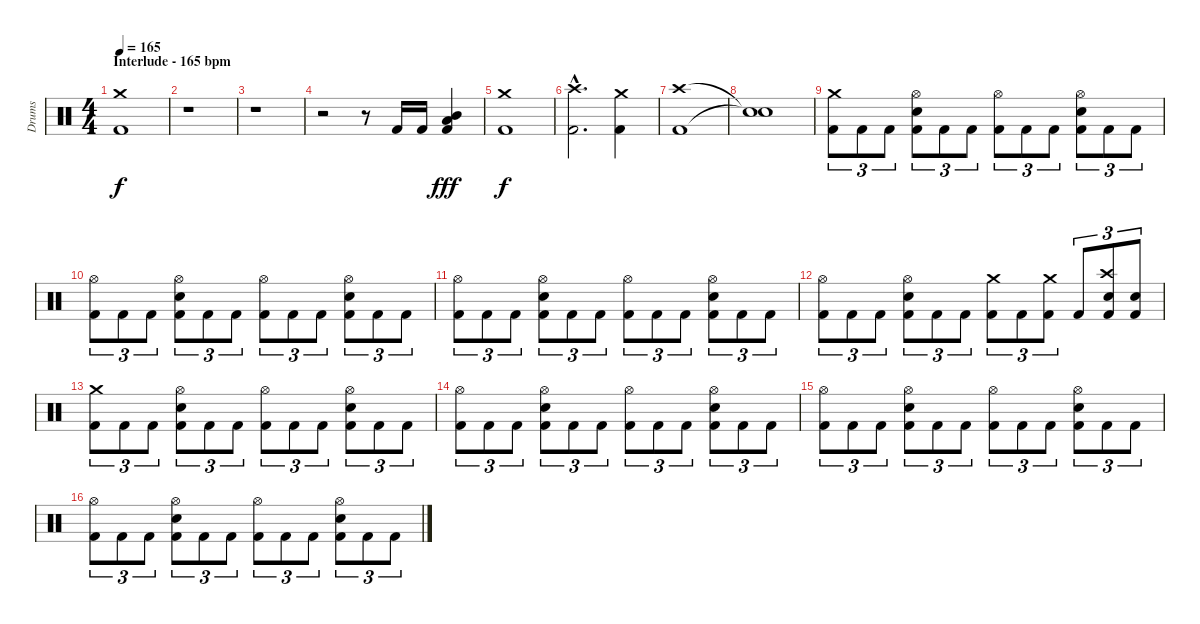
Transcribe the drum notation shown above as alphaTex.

\track ("Drums" "Drums") {instrument percussion}
\staff {score}
\articulation defaults
\ts (4 4)
\section ("" "Interlude - 165 bpm")
\tempo 165
\clef neutral
\ks c
("Kick (hit) 2" "Crash medium (hit)").1{dy f} |
r.1 |
r.1 |
r.2 r.8 "Kick (hit) 2".16 "Kick (hit) 2".16 ("Kick (hit) 2" "Mid Tom (hit)" "Low Tom (hit)").4{dy fff} |
("Kick (hit) 2" "Crash medium (hit)").1{dy f} |
("Kick (hit) 2"{hac} "Crash high (hit)"{hac}).2{d} ("Kick (hit) 2" "Crash medium (hit)").4 |
("Kick (hit) 2" "Crash high (hit)").1 |
("Snare (hit)"{t} "Snare (hit)"{t}).1 |
("Kick (hit) 2" "Crash medium (hit)").8{tu (3 2)} "Kick (hit) 2".8{tu (3 2)} "Kick (hit) 2".8{tu (3 2)} ("Kick (hit) 2" "Snare (hit) 2" "Hi-Hat (open)").8{tu (3 2)} "Kick (hit) 2".8{tu (3 2)} "Kick (hit) 2".8{tu (3 2)} ("Kick (hit) 2" "Hi-Hat (open)").8{tu (3 2)} "Kick (hit) 2".8{tu (3 2)} "Kick (hit) 2".8{tu (3 2)} ("Kick (hit) 2" "Snare (hit) 2" "Hi-Hat (open)").8{tu (3 2)} "Kick (hit) 2".8{tu (3 2)} "Kick (hit) 2".8{tu (3 2)} |
("Kick (hit) 2" "Hi-Hat (open)").8{tu (3 2)} "Kick (hit) 2".8{tu (3 2)} "Kick (hit) 2".8{tu (3 2)} ("Kick (hit) 2" "Snare (hit) 2" "Hi-Hat (open)").8{tu (3 2)} "Kick (hit) 2".8{tu (3 2)} "Kick (hit) 2".8{tu (3 2)} ("Kick (hit) 2" "Hi-Hat (open)").8{tu (3 2)} "Kick (hit) 2".8{tu (3 2)} "Kick (hit) 2".8{tu (3 2)} ("Kick (hit) 2" "Snare (hit) 2" "Hi-Hat (open)").8{tu (3 2)} "Kick (hit) 2".8{tu (3 2)} "Kick (hit) 2".8{tu (3 2)} |
("Kick (hit) 2" "Hi-Hat (open)").8{tu (3 2)} "Kick (hit) 2".8{tu (3 2)} "Kick (hit) 2".8{tu (3 2)} ("Kick (hit) 2" "Snare (hit) 2" "Hi-Hat (open)").8{tu (3 2)} "Kick (hit) 2".8{tu (3 2)} "Kick (hit) 2".8{tu (3 2)} ("Kick (hit) 2" "Hi-Hat (open)").8{tu (3 2)} "Kick (hit) 2".8{tu (3 2)} "Kick (hit) 2".8{tu (3 2)} ("Kick (hit) 2" "Snare (hit) 2" "Hi-Hat (open)").8{tu (3 2)} "Kick (hit) 2".8{tu (3 2)} "Kick (hit) 2".8{tu (3 2)} |
("Kick (hit) 2" "Hi-Hat (open)").8{tu (3 2)} "Kick (hit) 2".8{tu (3 2)} "Kick (hit) 2".8{tu (3 2)} ("Kick (hit) 2" "Snare (hit) 2" "Hi-Hat (open)").8{tu (3 2)} "Kick (hit) 2".8{tu (3 2)} "Kick (hit) 2".8{tu (3 2)} ("Kick (hit) 2" "Crash medium (hit)").8{tu (3 2)} "Kick (hit) 2".8{tu (3 2)} ("Kick (hit) 2" "Crash medium (hit)").8{tu (3 2)} "Kick (hit) 2".8{tu (3 2)} ("Kick (hit) 2" "Snare (hit) 2" "Crash high (hit)").8{tu (3 2)} ("Kick (hit) 2" "Snare (hit) 2").8{tu (3 2)} |
("Kick (hit) 2" "Crash medium (hit)").8{tu (3 2)} "Kick (hit) 2".8{tu (3 2)} "Kick (hit) 2".8{tu (3 2)} ("Kick (hit) 2" "Snare (hit) 2" "Hi-Hat (open)").8{tu (3 2)} "Kick (hit) 2".8{tu (3 2)} "Kick (hit) 2".8{tu (3 2)} ("Kick (hit) 2" "Hi-Hat (open)").8{tu (3 2)} "Kick (hit) 2".8{tu (3 2)} "Kick (hit) 2".8{tu (3 2)} ("Kick (hit) 2" "Snare (hit) 2" "Hi-Hat (open)").8{tu (3 2)} "Kick (hit) 2".8{tu (3 2)} "Kick (hit) 2".8{tu (3 2)} |
("Kick (hit) 2" "Hi-Hat (open)").8{tu (3 2)} "Kick (hit) 2".8{tu (3 2)} "Kick (hit) 2".8{tu (3 2)} ("Kick (hit) 2" "Snare (hit) 2" "Hi-Hat (open)").8{tu (3 2)} "Kick (hit) 2".8{tu (3 2)} "Kick (hit) 2".8{tu (3 2)} ("Kick (hit) 2" "Hi-Hat (open)").8{tu (3 2)} "Kick (hit) 2".8{tu (3 2)} "Kick (hit) 2".8{tu (3 2)} ("Kick (hit) 2" "Snare (hit) 2" "Hi-Hat (open)").8{tu (3 2)} "Kick (hit) 2".8{tu (3 2)} "Kick (hit) 2".8{tu (3 2)} |
("Kick (hit) 2" "Hi-Hat (open)").8{tu (3 2)} "Kick (hit) 2".8{tu (3 2)} "Kick (hit) 2".8{tu (3 2)} ("Kick (hit) 2" "Snare (hit) 2" "Hi-Hat (open)").8{tu (3 2)} "Kick (hit) 2".8{tu (3 2)} "Kick (hit) 2".8{tu (3 2)} ("Kick (hit) 2" "Hi-Hat (open)").8{tu (3 2)} "Kick (hit) 2".8{tu (3 2)} "Kick (hit) 2".8{tu (3 2)} ("Kick (hit) 2" "Snare (hit) 2" "Hi-Hat (open)").8{tu (3 2)} "Kick (hit) 2".8{tu (3 2)} "Kick (hit) 2".8{tu (3 2)} |
("Kick (hit) 2" "Hi-Hat (open)").8{tu (3 2)} "Kick (hit) 2".8{tu (3 2)} "Kick (hit) 2".8{tu (3 2)} ("Kick (hit) 2" "Snare (hit) 2" "Hi-Hat (open)").8{tu (3 2)} "Kick (hit) 2".8{tu (3 2)} "Kick (hit) 2".8{tu (3 2)} ("Kick (hit) 2" "Hi-Hat (open)").8{tu (3 2)} "Kick (hit) 2".8{tu (3 2)} "Kick (hit) 2".8{tu (3 2)} ("Kick (hit) 2" "Snare (hit) 2" "Hi-Hat (open)").8{tu (3 2)} "Kick (hit) 2".8{tu (3 2)} "Kick (hit) 2".8{tu (3 2)}
